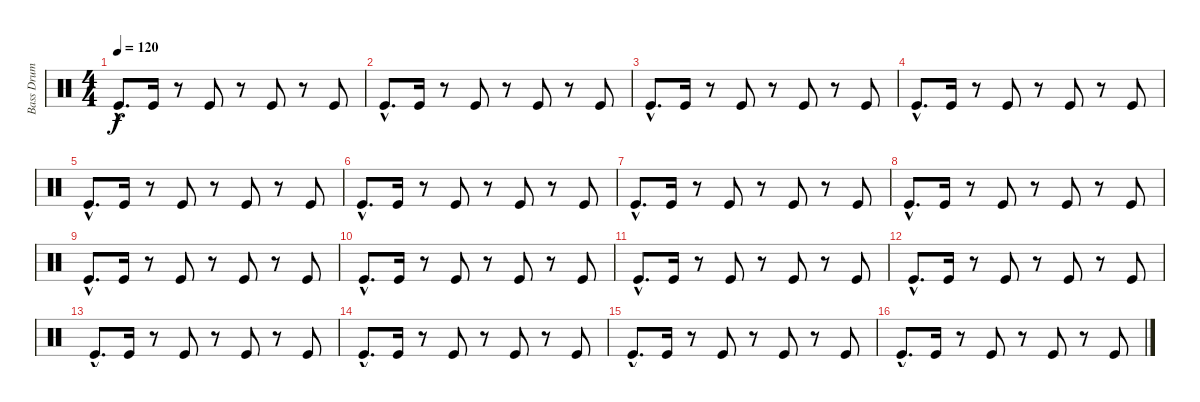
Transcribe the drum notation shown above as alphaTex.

\track ("Bass Drum" "Bass Drum") {instrument percussion}
\staff {score}
\articulation defaults
\ts (4 4)
\tempo 120
\clef neutral
\ks c "Kick (hit)"{hac}.8{d dy f} "Kick (hit)".16
r.8 "Kick (hit)".8 r.8 "Kick (hit)".8 r.8 "Kick (hit)".8 |
"Kick (hit)"{hac}.8{d} "Kick (hit)".16 r.8 "Kick (hit)".8 r.8 "Kick (hit)".8 r.8 "Kick (hit)".8 |
"Kick (hit)"{hac}.8{d} "Kick (hit)".16 r.8 "Kick (hit)".8 r.8 "Kick (hit)".8 r.8 "Kick (hit)".8 |
"Kick (hit)"{hac}.8{d} "Kick (hit)".16 r.8 "Kick (hit)".8 r.8 "Kick (hit)".8 r.8 "Kick (hit)".8 |
"Kick (hit)"{hac}.8{d} "Kick (hit)".16 r.8 "Kick (hit)".8 r.8 "Kick (hit)".8 r.8 "Kick (hit)".8 |
"Kick (hit)"{hac}.8{d} "Kick (hit)".16 r.8 "Kick (hit)".8 r.8 "Kick (hit)".8 r.8 "Kick (hit)".8 |
"Kick (hit)"{hac}.8{d} "Kick (hit)".16 r.8 "Kick (hit)".8 r.8 "Kick (hit)".8 r.8 "Kick (hit)".8 |
"Kick (hit)"{hac}.8{d} "Kick (hit)".16 r.8 "Kick (hit)".8 r.8 "Kick (hit)".8 r.8 "Kick (hit)".8 |
"Kick (hit)"{hac}.8{d} "Kick (hit)".16 r.8 "Kick (hit)".8 r.8 "Kick (hit)".8 r.8 "Kick (hit)".8 |
"Kick (hit)"{hac}.8{d} "Kick (hit)".16 r.8 "Kick (hit)".8 r.8 "Kick (hit)".8 r.8 "Kick (hit)".8 |
"Kick (hit)"{hac}.8{d} "Kick (hit)".16 r.8 "Kick (hit)".8 r.8 "Kick (hit)".8 r.8 "Kick (hit)".8 |
"Kick (hit)"{hac}.8{d} "Kick (hit)".16 r.8 "Kick (hit)".8 r.8 "Kick (hit)".8 r.8 "Kick (hit)".8 |
"Kick (hit)"{hac}.8{d} "Kick (hit)".16 r.8 "Kick (hit)".8 r.8 "Kick (hit)".8 r.8 "Kick (hit)".8 |
"Kick (hit)"{hac}.8{d} "Kick (hit)".16 r.8 "Kick (hit)".8 r.8 "Kick (hit)".8 r.8 "Kick (hit)".8 |
"Kick (hit)"{hac}.8{d} "Kick (hit)".16 r.8 "Kick (hit)".8 r.8 "Kick (hit)".8 r.8 "Kick (hit)".8 |
"Kick (hit)"{hac}.8{d} "Kick (hit)".16 r.8 "Kick (hit)".8 r.8 "Kick (hit)".8 r.8 "Kick (hit)".8
